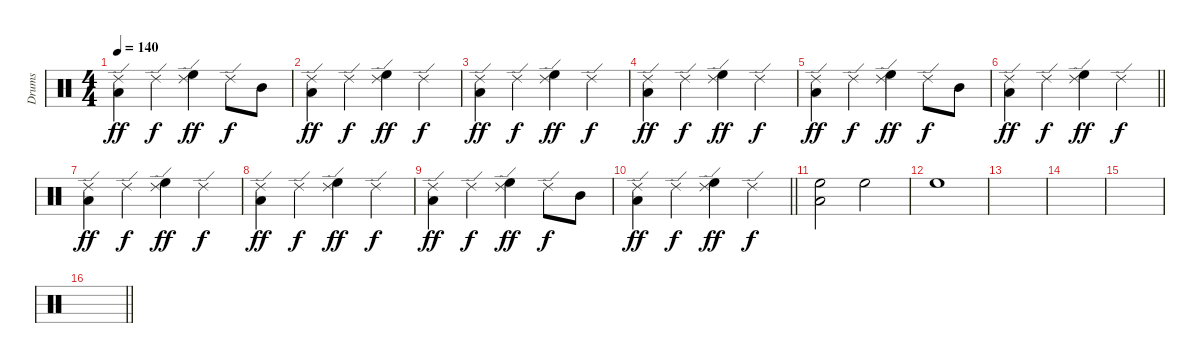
\track ("Drums" "Drums") {instrument percussion}
\staff {score}
\articulation defaults
\ts (4 4)
\tempo 140
\clef neutral
\ks c
("Low Tom (hit)" "Ride (edge) 2").4{dy ff} "Ride (edge) 2".4{dy f} ("High Floor Tom (hit)" "Ride (edge) 2").4{dy ff} "Ride (edge) 2".8{dy f} "Mid Tom (hit)".8 |
("Low Tom (hit)" "Ride (edge) 2").4{dy ff} "Ride (edge) 2".4{dy f} ("High Floor Tom (hit)" "Ride (edge) 2").4{dy ff} "Ride (edge) 2".4{dy f} |
("Low Tom (hit)" "Ride (edge) 2").4{dy ff} "Ride (edge) 2".4{dy f} ("High Floor Tom (hit)" "Ride (edge) 2").4{dy ff} "Ride (edge) 2".4{dy f} |
("Low Tom (hit)" "Ride (edge) 2").4{dy ff} "Ride (edge) 2".4{dy f} ("High Floor Tom (hit)" "Ride (edge) 2").4{dy ff} "Ride (edge) 2".4{dy f} |
("Low Tom (hit)" "Ride (edge) 2").4{dy ff} "Ride (edge) 2".4{dy f} ("High Floor Tom (hit)" "Ride (edge) 2").4{dy ff} "Ride (edge) 2".8{dy f} "Mid Tom (hit)".8 |
\barLineRight lightlight
("Low Tom (hit)" "Ride (edge) 2").4{dy ff} "Ride (edge) 2".4{dy f} ("High Floor Tom (hit)" "Ride (edge) 2").4{dy ff} "Ride (edge) 2".4{dy f} |
("Low Tom (hit)" "Ride (edge) 2").4{dy ff} "Ride (edge) 2".4{dy f} ("High Floor Tom (hit)" "Ride (edge) 2").4{dy ff} "Ride (edge) 2".4{dy f} |
("Low Tom (hit)" "Ride (edge) 2").4{dy ff} "Ride (edge) 2".4{dy f} ("High Floor Tom (hit)" "Ride (edge) 2").4{dy ff} "Ride (edge) 2".4{dy f} |
("Low Tom (hit)" "Ride (edge) 2").4{dy ff} "Ride (edge) 2".4{dy f} ("High Floor Tom (hit)" "Ride (edge) 2").4{dy ff} "Ride (edge) 2".8{dy f} "Mid Tom (hit)".8 |
\barLineRight lightlight
("Low Tom (hit)" "Ride (edge) 2").4{dy ff} "Ride (edge) 2".4{dy f} ("High Floor Tom (hit)" "Ride (edge) 2").4{dy ff} "Ride (edge) 2".4{dy f} |
("High Floor Tom (hit)" "Low Floor Tom (hit)").2 "High Floor Tom (hit)".2 |
"High Floor Tom (hit)".1 |
|
|
|
\barLineRight lightlight
